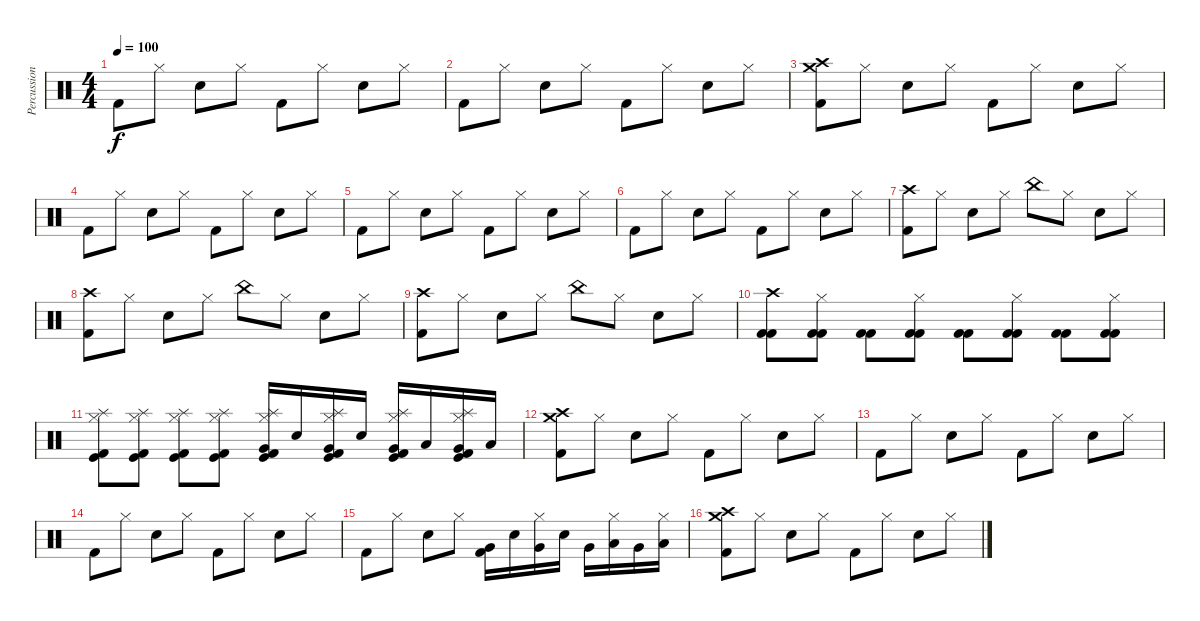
\track ("Percussion" "Percussion") {instrument percussion}
\staff {score}
\articulation defaults
\ts (4 4)
\tempo 100
\clef neutral
\ks c "Kick (hit) 2".8{dy f} "Hi-Hat (closed)".8 "Electric Snare (hit)".8 "Hi-Hat (closed)".8 "Kick (hit) 2".8 "Hi-Hat (closed)".8 "Electric Snare (hit)".8 "Hi-Hat (closed)".8
|
"Kick (hit) 2".8 "Hi-Hat (closed)".8 "Electric Snare (hit)".8 "Hi-Hat (closed)".8 "Kick (hit) 2".8 "Hi-Hat (closed)".8 "Electric Snare (hit)".8 "Hi-Hat (closed)".8 |
("Kick (hit) 2" "Crash high (hit)" "Crash medium (hit)").8 "Hi-Hat (closed)".8 "Electric Snare (hit)".8 "Hi-Hat (closed)".8 "Kick (hit) 2".8 "Hi-Hat (closed)".8 "Electric Snare (hit)".8 "Hi-Hat (closed)".8 |
"Kick (hit) 2".8 "Hi-Hat (closed)".8 "Electric Snare (hit)".8 "Hi-Hat (closed)".8 "Kick (hit) 2".8 "Hi-Hat (closed)".8 "Electric Snare (hit)".8 "Hi-Hat (closed)".8 |
"Kick (hit) 2".8 "Hi-Hat (closed)".8 "Electric Snare (hit)".8 "Hi-Hat (closed)".8 "Kick (hit) 2".8 "Hi-Hat (closed)".8 "Electric Snare (hit)".8 "Hi-Hat (closed)".8 |
"Kick (hit) 2".8 "Hi-Hat (closed)".8 "Electric Snare (hit)".8 "Hi-Hat (closed)".8 "Kick (hit) 2".8 "Hi-Hat (closed)".8 "Electric Snare (hit)".8 "Hi-Hat (closed)".8 |
("Kick (hit) 2" "Crash high (hit)").8 "Hi-Hat (closed)".8 "Electric Snare (hit)".8 "Hi-Hat (closed)".8 "China (hit)".8 "Hi-Hat (closed)".8 "Electric Snare (hit)".8 "Hi-Hat (closed)".8 |
("Kick (hit) 2" "Crash high (hit)").8 "Hi-Hat (closed)".8 "Electric Snare (hit)".8 "Hi-Hat (closed)".8 "China (hit)".8 "Hi-Hat (closed)".8 "Electric Snare (hit)".8 "Hi-Hat (closed)".8 |
("Kick (hit) 2" "Crash high (hit)").8 "Hi-Hat (closed)".8 "Electric Snare (hit)".8 "Hi-Hat (closed)".8 "China (hit)".8 "Hi-Hat (closed)".8 "Electric Snare (hit)".8 "Hi-Hat (closed)".8 |
("Kick (hit) 2" "Kick (hit) 2" "Crash high (hit)").8 ("Kick (hit) 2" "Kick (hit) 2" "Hi-Hat (closed)").8 ("Kick (hit) 2" "Kick (hit) 2").8 ("Kick (hit) 2" "Kick (hit) 2" "Hi-Hat (closed)").8 ("Kick (hit) 2" "Kick (hit) 2").8 ("Kick (hit) 2" "Kick (hit) 2" "Hi-Hat (closed)").8 ("Kick (hit) 2" "Kick (hit) 2").8 ("Kick (hit) 2" "Kick (hit) 2" "Hi-Hat (closed)").8 |
("Kick (hit)" "Kick (hit) 2" "Hi-Hat (closed)" "Splash (hit)").8 ("Kick (hit)" "Kick (hit) 2" "Hi-Hat (closed)" "Splash (hit)").8 ("Kick (hit)" "Kick (hit) 2" "Hi-Hat (closed)" "Splash (hit)").8 ("Kick (hit)" "Kick (hit) 2" "Hi-Hat (closed)" "Splash (hit)").8 ("Kick (hit)" "Kick (hit) 2" "Hi-Hat (closed)" "Splash (hit)" "Very Low Tom (hit)").16 "Electric Snare (hit)".16 ("Kick (hit)" "Kick (hit) 2" "Hi-Hat (closed)" "Splash (hit)" "Very Low Tom (hit)").16 "Electric Snare (hit)".16 ("Kick (hit)" "Kick (hit) 2" "Hi-Hat (closed)" "Splash (hit)" "Very Low Tom (hit)").16 "Low Floor Tom (hit)".16 ("Kick (hit)" "Kick (hit) 2" "Hi-Hat (closed)" "Splash (hit)" "Very Low Tom (hit)").16 "Low Floor Tom (hit)".16 |
("Kick (hit) 2" "Crash high (hit)" "Crash medium (hit)").8 "Hi-Hat (closed)".8 "Electric Snare (hit)".8 "Hi-Hat (closed)".8 "Kick (hit) 2".8 "Hi-Hat (closed)".8 "Electric Snare (hit)".8 "Hi-Hat (closed)".8 |
"Kick (hit) 2".8 "Hi-Hat (closed)".8 "Electric Snare (hit)".8 "Hi-Hat (closed)".8 "Kick (hit) 2".8 "Hi-Hat (closed)".8 "Electric Snare (hit)".8 "Hi-Hat (closed)".8 |
"Kick (hit) 2".8 "Hi-Hat (closed)".8 "Electric Snare (hit)".8 "Hi-Hat (closed)".8 "Kick (hit) 2".8 "Hi-Hat (closed)".8 "Electric Snare (hit)".8 "Hi-Hat (closed)".8 |
"Kick (hit) 2".8 "Hi-Hat (closed)".8 "Electric Snare (hit)".8 "Hi-Hat (closed)".8 ("Kick (hit) 2" "Very Low Tom (hit)").16 "Electric Snare (hit)".16 ("Hi-Hat (closed)" "Very Low Tom (hit)").16 "Electric Snare (hit)".16 "Very Low Tom (hit)".16 ("Hi-Hat (closed)" "Low Floor Tom (hit)").16 "Very Low Tom (hit)".16 ("Hi-Hat (closed)" "Low Floor Tom (hit)").16 |
("Kick (hit) 2" "Crash high (hit)" "Crash medium (hit)").8 "Hi-Hat (closed)".8 "Electric Snare (hit)".8 "Hi-Hat (closed)".8 "Kick (hit) 2".8 "Hi-Hat (closed)".8 "Electric Snare (hit)".8 "Hi-Hat (closed)".8
